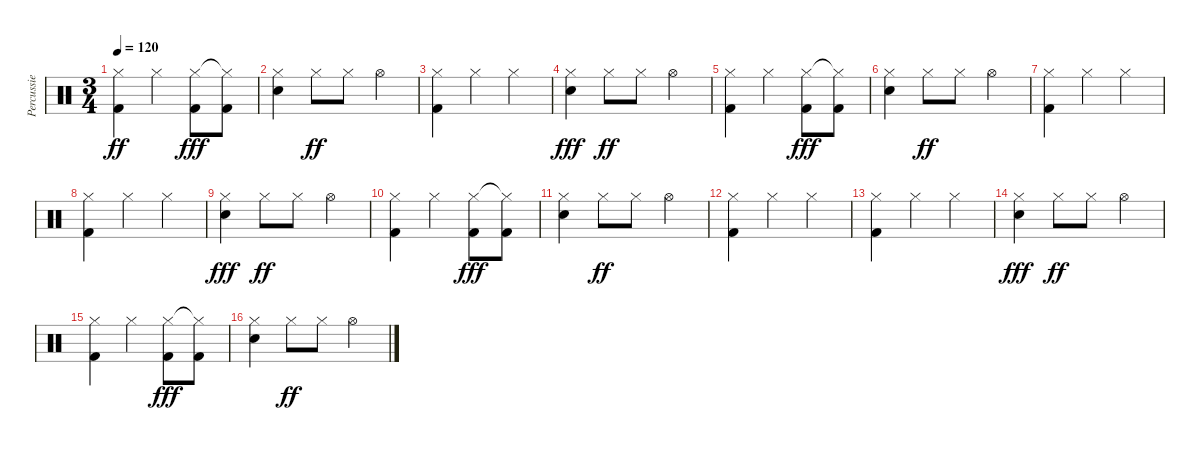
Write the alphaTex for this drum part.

\track ("Percussie" "Percussie") {instrument percussion}
\staff {score}
\articulation defaults
\ts (3 4)
\tempo 120
\clef neutral
\ks c
("Hi-Hat (closed)" "Kick (hit) 2").4{dy ff} "Hi-Hat (closed)".4 ("Hi-Hat (closed)" "Kick (hit) 2").8{dy fff} ("Hi-Hat (closed)"{t} "Kick (hit) 2").8 |
("Hi-Hat (closed)" "Electric Snare (hit)").4 "Hi-Hat (closed)".8{dy ff} "Hi-Hat (closed)".8 "Hi-Hat (open)".4 |
("Hi-Hat (closed)" "Kick (hit) 2").4 "Hi-Hat (closed)".4 "Hi-Hat (closed)".4 |
("Hi-Hat (closed)" "Electric Snare (hit)").4{dy fff} "Hi-Hat (closed)".8{dy ff} "Hi-Hat (closed)".8 "Hi-Hat (open)".4 |
("Hi-Hat (closed)" "Kick (hit) 2").4 "Hi-Hat (closed)".4 ("Hi-Hat (closed)" "Kick (hit) 2").8{dy fff} ("Hi-Hat (closed)"{t} "Kick (hit) 2").8 |
("Hi-Hat (closed)" "Electric Snare (hit)").4 "Hi-Hat (closed)".8{dy ff} "Hi-Hat (closed)".8 "Hi-Hat (open)".4 |
("Hi-Hat (closed)" "Kick (hit) 2").4 "Hi-Hat (closed)".4 "Hi-Hat (closed)".4 |
("Hi-Hat (closed)" "Kick (hit) 2").4 "Hi-Hat (closed)".4 "Hi-Hat (closed)".4 |
("Hi-Hat (closed)" "Electric Snare (hit)").4{dy fff} "Hi-Hat (closed)".8{dy ff} "Hi-Hat (closed)".8 "Hi-Hat (open)".4 |
("Hi-Hat (closed)" "Kick (hit) 2").4 "Hi-Hat (closed)".4 ("Hi-Hat (closed)" "Kick (hit) 2").8{dy fff} ("Hi-Hat (closed)"{t} "Kick (hit) 2").8 |
("Hi-Hat (closed)" "Electric Snare (hit)").4 "Hi-Hat (closed)".8{dy ff} "Hi-Hat (closed)".8 "Hi-Hat (open)".4 |
("Hi-Hat (closed)" "Kick (hit) 2").4 "Hi-Hat (closed)".4 "Hi-Hat (closed)".4 |
("Hi-Hat (closed)" "Kick (hit) 2").4 "Hi-Hat (closed)".4 "Hi-Hat (closed)".4 |
("Hi-Hat (closed)" "Electric Snare (hit)").4{dy fff} "Hi-Hat (closed)".8{dy ff} "Hi-Hat (closed)".8 "Hi-Hat (open)".4 |
("Hi-Hat (closed)" "Kick (hit) 2").4 "Hi-Hat (closed)".4 ("Hi-Hat (closed)" "Kick (hit) 2").8{dy fff} ("Hi-Hat (closed)"{t} "Kick (hit) 2").8 |
("Hi-Hat (closed)" "Electric Snare (hit)").4 "Hi-Hat (closed)".8{dy ff} "Hi-Hat (closed)".8 "Hi-Hat (open)".4
